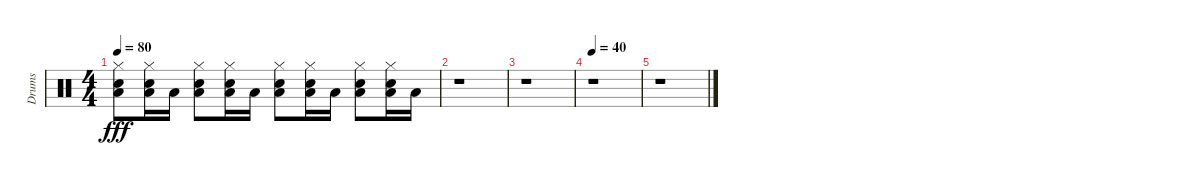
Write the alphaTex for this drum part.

\track ("Drums" "Drums") {instrument percussion}
\staff {score}
\articulation defaults
\ts (4 4)
\tempo 80
\clef neutral
\ks c
("Hi-Hat (closed)" "Snare (hit)" "Low Floor Tom (hit)").8{dy fff} ("Hi-Hat (closed)" "Snare (hit)" "Low Floor Tom (hit)").16 "Low Floor Tom (hit)".16 ("Hi-Hat (closed)" "Snare (hit) 2" "Low Floor Tom (hit)").8 ("Hi-Hat (closed)" "Snare (hit)" "Low Floor Tom (hit)").16 "Low Floor Tom (hit)".16 ("Hi-Hat (closed)" "Snare (hit)" "Low Floor Tom (hit)").8 ("Hi-Hat (closed)" "Snare (hit)" "Low Floor Tom (hit)").16 "Low Floor Tom (hit)".16 ("Hi-Hat (closed)" "Snare (hit) 2" "Low Floor Tom (hit)").8 ("Hi-Hat (closed)" "Snare (hit)" "Low Floor Tom (hit)").16 "Low Floor Tom (hit)".16 |
r.1 |
r.1 |
\tempo 40
r.1 |
r.1
